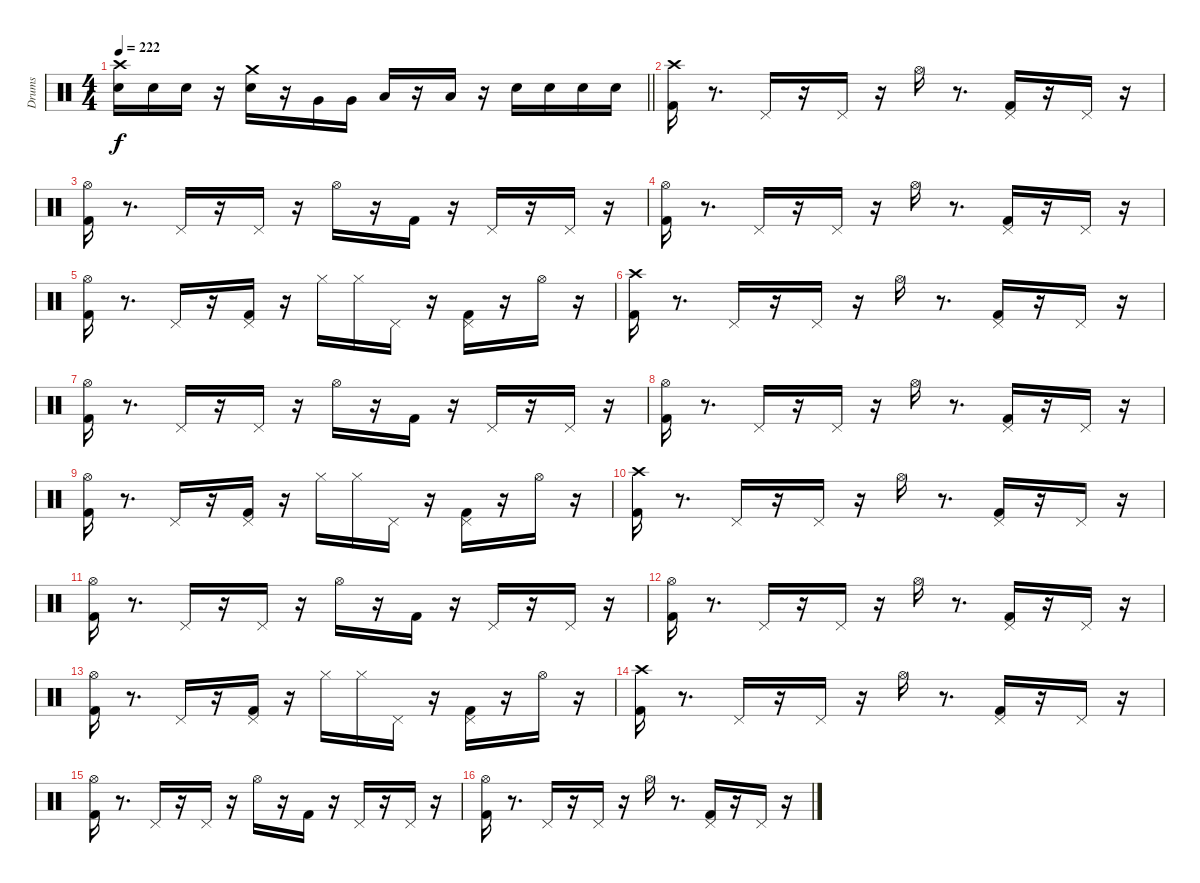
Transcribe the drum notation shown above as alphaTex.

\track ("Drums" "Drums") {instrument percussion}
\staff {score}
\articulation defaults
\ts (4 4)
\tempo 222
\clef neutral
\barLineRight lightlight
\ks c
("Snare (hit) 2" "Crash high (hit)").16{dy f} "Snare (hit) 2".16 "Snare (hit) 2".16 r.16 ("Snare (hit) 2" "Crash medium (hit)").16 r.16 "Very Low Tom (hit)".16 "Very Low Tom (hit)".16 "Low Floor Tom (hit)".16 r.16 "Low Floor Tom (hit)".16 r.16 "Snare (hit) 2".16 "Snare (hit) 2".16 "Snare (hit) 2".16 "Snare (hit) 2".16 |
\section ("" " ")
("Kick (hit) 2" "Crash high (hit)").16 r.8{d} "Pedal Hi-Hat (hit)".16 r.16 "Pedal Hi-Hat (hit)".16 r.16 "Hi-Hat (open)".16 r.8{d} ("Kick (hit) 2" "Pedal Hi-Hat (hit)").16 r.16 "Pedal Hi-Hat (hit)".16 r.16 |
("Kick (hit) 2" "Hi-Hat (open)").16 r.8{d} "Pedal Hi-Hat (hit)".16 r.16 "Pedal Hi-Hat (hit)".16 r.16 "Hi-Hat (open)".16 r.16 "Kick (hit) 2".16 r.16 "Pedal Hi-Hat (hit)".16 r.16 "Pedal Hi-Hat (hit)".16 r.16 |
("Kick (hit) 2" "Hi-Hat (open)").16 r.8{d} "Pedal Hi-Hat (hit)".16 r.16 "Pedal Hi-Hat (hit)".16 r.16 "Hi-Hat (open)".16 r.8{d} ("Kick (hit) 2" "Pedal Hi-Hat (hit)").16 r.16 "Pedal Hi-Hat (hit)".16 r.16 |
("Kick (hit) 2" "Hi-Hat (open)").16 r.8{d} "Pedal Hi-Hat (hit)".16 r.16 ("Kick (hit) 2" "Pedal Hi-Hat (hit)").16 r.16 "Hi-Hat (closed)".16 "Hi-Hat (closed)".16 "Pedal Hi-Hat (hit)".16 r.16 ("Kick (hit) 2" "Pedal Hi-Hat (hit)").16 r.16 "Hi-Hat (open)".16 r.16 |
("Kick (hit) 2" "Crash high (hit)").16 r.8{d} "Pedal Hi-Hat (hit)".16 r.16 "Pedal Hi-Hat (hit)".16 r.16 "Hi-Hat (open)".16 r.8{d} ("Kick (hit) 2" "Pedal Hi-Hat (hit)").16 r.16 "Pedal Hi-Hat (hit)".16 r.16 |
("Kick (hit) 2" "Hi-Hat (open)").16 r.8{d} "Pedal Hi-Hat (hit)".16 r.16 "Pedal Hi-Hat (hit)".16 r.16 "Hi-Hat (open)".16 r.16 "Kick (hit) 2".16 r.16 "Pedal Hi-Hat (hit)".16 r.16 "Pedal Hi-Hat (hit)".16 r.16 |
("Kick (hit) 2" "Hi-Hat (open)").16 r.8{d} "Pedal Hi-Hat (hit)".16 r.16 "Pedal Hi-Hat (hit)".16 r.16 "Hi-Hat (open)".16 r.8{d} ("Kick (hit) 2" "Pedal Hi-Hat (hit)").16 r.16 "Pedal Hi-Hat (hit)".16 r.16 |
("Kick (hit) 2" "Hi-Hat (open)").16 r.8{d} "Pedal Hi-Hat (hit)".16 r.16 ("Kick (hit) 2" "Pedal Hi-Hat (hit)").16 r.16 "Hi-Hat (closed)".16 "Hi-Hat (closed)".16 "Pedal Hi-Hat (hit)".16 r.16 ("Kick (hit) 2" "Pedal Hi-Hat (hit)").16 r.16 "Hi-Hat (open)".16 r.16 |
("Kick (hit) 2" "Crash high (hit)").16 r.8{d} "Pedal Hi-Hat (hit)".16 r.16 "Pedal Hi-Hat (hit)".16 r.16 "Hi-Hat (open)".16 r.8{d} ("Kick (hit) 2" "Pedal Hi-Hat (hit)").16 r.16 "Pedal Hi-Hat (hit)".16 r.16 |
("Kick (hit) 2" "Hi-Hat (open)").16 r.8{d} "Pedal Hi-Hat (hit)".16 r.16 "Pedal Hi-Hat (hit)".16 r.16 "Hi-Hat (open)".16 r.16 "Kick (hit) 2".16 r.16 "Pedal Hi-Hat (hit)".16 r.16 "Pedal Hi-Hat (hit)".16 r.16 |
("Kick (hit) 2" "Hi-Hat (open)").16 r.8{d} "Pedal Hi-Hat (hit)".16 r.16 "Pedal Hi-Hat (hit)".16 r.16 "Hi-Hat (open)".16 r.8{d} ("Kick (hit) 2" "Pedal Hi-Hat (hit)").16 r.16 "Pedal Hi-Hat (hit)".16 r.16 |
("Kick (hit) 2" "Hi-Hat (open)").16 r.8{d} "Pedal Hi-Hat (hit)".16 r.16 ("Kick (hit) 2" "Pedal Hi-Hat (hit)").16 r.16 "Hi-Hat (closed)".16 "Hi-Hat (closed)".16 "Pedal Hi-Hat (hit)".16 r.16 ("Kick (hit) 2" "Pedal Hi-Hat (hit)").16 r.16 "Hi-Hat (open)".16 r.16 |
("Kick (hit) 2" "Crash high (hit)").16 r.8{d} "Pedal Hi-Hat (hit)".16 r.16 "Pedal Hi-Hat (hit)".16 r.16 "Hi-Hat (open)".16 r.8{d} ("Kick (hit) 2" "Pedal Hi-Hat (hit)").16 r.16 "Pedal Hi-Hat (hit)".16 r.16 |
("Kick (hit) 2" "Hi-Hat (open)").16 r.8{d} "Pedal Hi-Hat (hit)".16 r.16 "Pedal Hi-Hat (hit)".16 r.16 "Hi-Hat (open)".16 r.16 "Kick (hit) 2".16 r.16 "Pedal Hi-Hat (hit)".16 r.16 "Pedal Hi-Hat (hit)".16 r.16 |
("Kick (hit) 2" "Hi-Hat (open)").16 r.8{d} "Pedal Hi-Hat (hit)".16 r.16 "Pedal Hi-Hat (hit)".16 r.16 "Hi-Hat (open)".16 r.8{d} ("Kick (hit) 2" "Pedal Hi-Hat (hit)").16 r.16 "Pedal Hi-Hat (hit)".16 r.16
